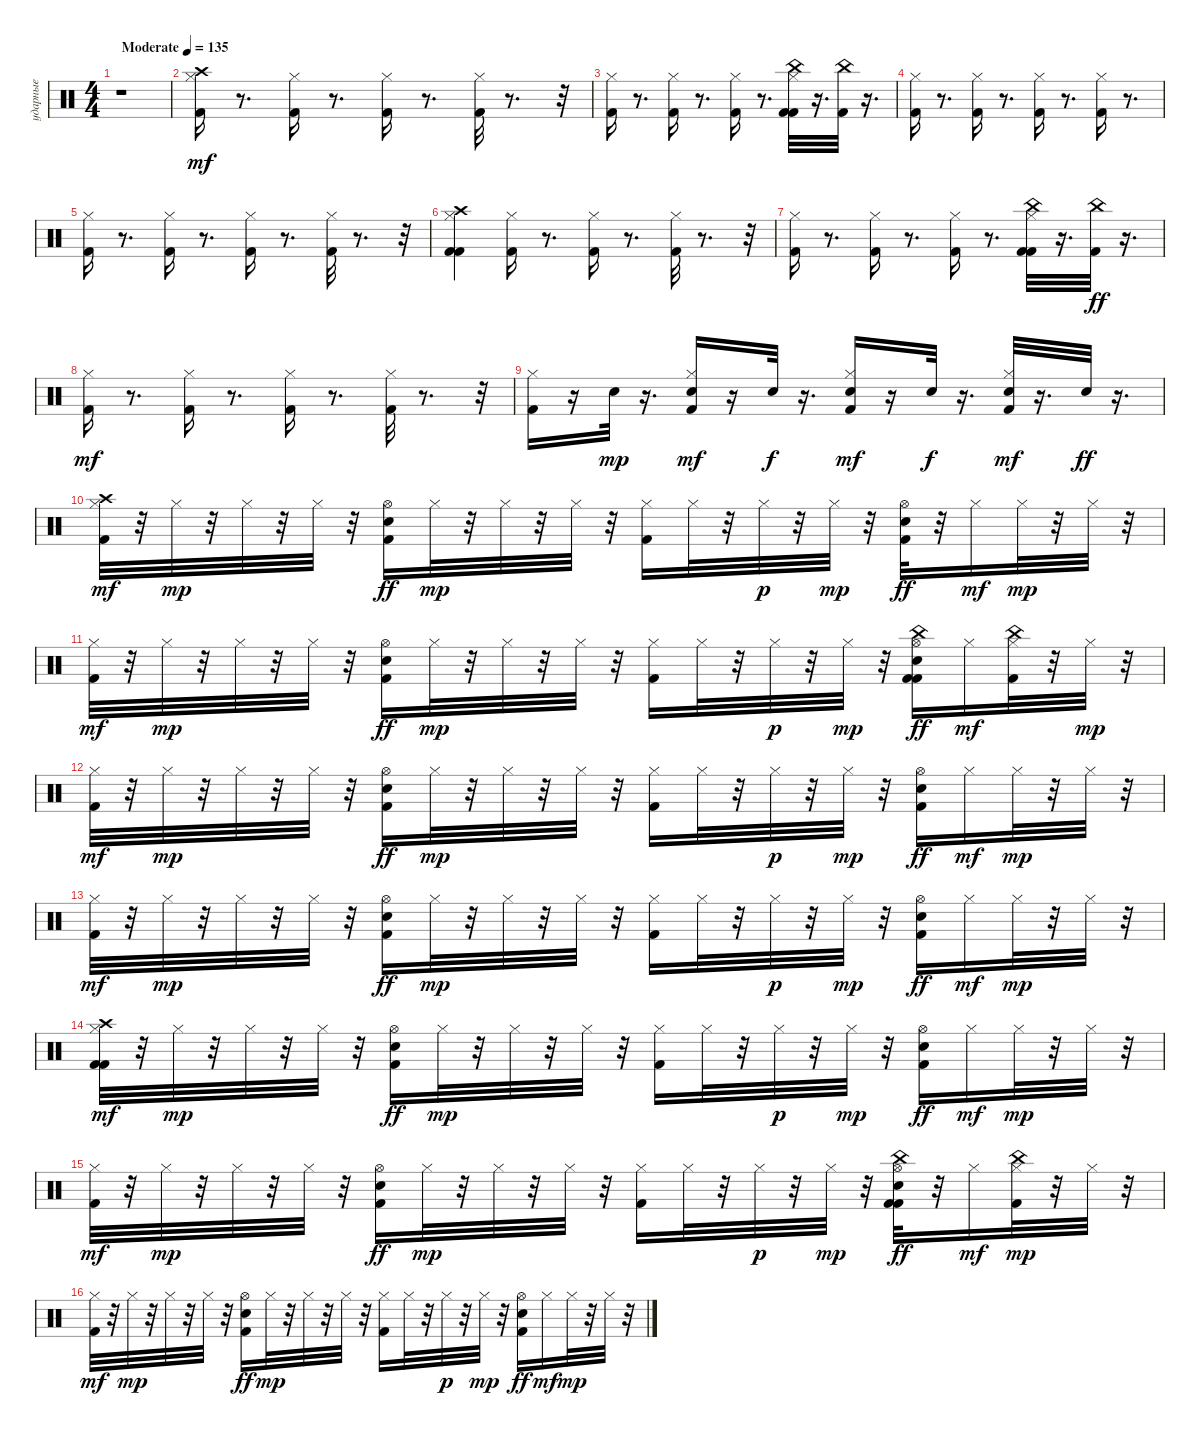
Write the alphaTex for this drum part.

\track ("ударные" "ударные") {instrument percussion}
\staff {score}
\articulation defaults
\ts (4 4)
\tempo (135 "Moderate")
\clef neutral
\ks c
r.1{dy mf} |
("Kick (hit) 2" "Hi-Hat (closed)" "Crash high (hit)").16 r.8{d} ("Kick (hit) 2" "Hi-Hat (closed)").16 r.8{d} ("Kick (hit) 2" "Hi-Hat (closed)").16 r.8{d} ("Kick (hit) 2" "Hi-Hat (closed)").32 r.8{d} r.32 |
("Kick (hit) 2" "Hi-Hat (closed)").16 r.8{d} ("Kick (hit) 2" "Hi-Hat (closed)").16 r.8{d} ("Kick (hit) 2" "Hi-Hat (closed)").16 r.8{d} ("Kick (hit) 2" "Kick (hit) 2" "Hi-Hat (closed)" "China (hit)").32 r.16{d} ("Kick (hit) 2" "China (hit)").32 r.16{d} |
("Kick (hit) 2" "Hi-Hat (closed)").16 r.8{d} ("Kick (hit) 2" "Hi-Hat (closed)").16 r.8{d} ("Kick (hit) 2" "Hi-Hat (closed)").16 r.8{d} ("Kick (hit) 2" "Hi-Hat (closed)").16 r.8{d} |
("Kick (hit) 2" "Hi-Hat (closed)").16 r.8{d} ("Kick (hit) 2" "Hi-Hat (closed)").16 r.8{d} ("Kick (hit) 2" "Hi-Hat (closed)").16 r.8{d} ("Kick (hit) 2" "Hi-Hat (closed)").32 r.8{d} r.32 |
("Kick (hit) 2" "Hi-Hat (closed)" "Kick (hit) 2" "Crash high (hit)").4 ("Kick (hit) 2" "Hi-Hat (closed)").16 r.8{d} ("Kick (hit) 2" "Hi-Hat (closed)").16 r.8{d} ("Kick (hit) 2" "Hi-Hat (closed)").32 r.8{d} r.32 |
("Kick (hit) 2" "Hi-Hat (closed)").16 r.8{d} ("Kick (hit) 2" "Hi-Hat (closed)").16 r.8{d} ("Kick (hit) 2" "Hi-Hat (closed)").16 r.8{d} ("Kick (hit) 2" "Kick (hit) 2" "Hi-Hat (closed)" "China (hit)").32 r.16{d} ("Kick (hit) 2" "China (hit)").32{dy ff} r.16{d} |
("Kick (hit) 2" "Hi-Hat (closed)").16{dy mf} r.8{d} ("Kick (hit) 2" "Hi-Hat (closed)").16 r.8{d} ("Kick (hit) 2" "Hi-Hat (closed)").16 r.8{d} ("Kick (hit) 2" "Hi-Hat (closed)").32 r.8{d} r.32 |
("Kick (hit) 2" "Hi-Hat (closed)").16 r.16 "Snare (hit) 2".32{dy mp} r.16{d} ("Kick (hit) 2" "Snare (hit) 2" "Hi-Hat (closed)").16{dy mf} r.16 "Snare (hit) 2".32{dy f} r.16{d} ("Kick (hit) 2" "Snare (hit) 2" "Hi-Hat (closed)").16{dy mf} r.16 "Snare (hit) 2".32{dy f} r.16{d} ("Kick (hit) 2" "Snare (hit) 2" "Hi-Hat (closed)").32{dy mf} r.16{d} "Snare (hit) 2".32{dy ff} r.16{d} |
("Kick (hit) 2" "Hi-Hat (closed)" "Crash high (hit)").32{dy mf} r.32 "Hi-Hat (closed)".32{dy mp} r.32 "Hi-Hat (closed)".32 r.32 "Hi-Hat (closed)".32 r.32 ("Kick (hit) 2" "Snare (hit) 2" "Hi-Hat (open)").16{dy ff} "Hi-Hat (closed)".32{dy mp} r.32 "Hi-Hat (closed)".32 r.32 "Hi-Hat (closed)".32 r.32 ("Kick (hit) 2" "Hi-Hat (closed)").16 "Hi-Hat (closed)".32 r.32 "Hi-Hat (closed)".32{dy p} r.32 "Hi-Hat (closed)".32{dy mp} r.32 ("Kick (hit) 2" "Snare (hit) 2" "Hi-Hat (open)").32{dy ff} r.32 "Hi-Hat (closed)".16{dy mf} "Hi-Hat (closed)".32{dy mp} r.32 "Hi-Hat (closed)".32 r.32 |
("Kick (hit) 2" "Hi-Hat (closed)").32{dy mf} r.32 "Hi-Hat (closed)".32{dy mp} r.32 "Hi-Hat (closed)".32 r.32 "Hi-Hat (closed)".32 r.32 ("Kick (hit) 2" "Snare (hit) 2" "Hi-Hat (open)").16{dy ff} "Hi-Hat (closed)".32{dy mp} r.32 "Hi-Hat (closed)".32 r.32 "Hi-Hat (closed)".32 r.32 ("Kick (hit) 2" "Hi-Hat (closed)").16 "Hi-Hat (closed)".32 r.32 "Hi-Hat (closed)".32{dy p} r.32 "Hi-Hat (closed)".32{dy mp} r.32 ("Kick (hit) 2" "Kick (hit) 2" "Hi-Hat (open)" "Snare (hit) 2" "China (hit)").16{dy ff} "Hi-Hat (closed)".16{dy mf} ("Kick (hit) 2" "Hi-Hat (closed)" "China (hit)").32 r.32 "Hi-Hat (closed)".32{dy mp} r.32 |
("Kick (hit) 2" "Hi-Hat (closed)").32{dy mf} r.32 "Hi-Hat (closed)".32{dy mp} r.32 "Hi-Hat (closed)".32 r.32 "Hi-Hat (closed)".32 r.32 ("Kick (hit) 2" "Snare (hit) 2" "Hi-Hat (open)").16{dy ff} "Hi-Hat (closed)".32{dy mp} r.32 "Hi-Hat (closed)".32 r.32 "Hi-Hat (closed)".32 r.32 ("Kick (hit) 2" "Hi-Hat (closed)").16 "Hi-Hat (closed)".32 r.32 "Hi-Hat (closed)".32{dy p} r.32 "Hi-Hat (closed)".32{dy mp} r.32 ("Kick (hit) 2" "Snare (hit) 2" "Hi-Hat (open)").16{dy ff} "Hi-Hat (closed)".16{dy mf} "Hi-Hat (closed)".32{dy mp} r.32 "Hi-Hat (closed)".32 r.32 |
("Kick (hit) 2" "Hi-Hat (closed)").32{dy mf} r.32 "Hi-Hat (closed)".32{dy mp} r.32 "Hi-Hat (closed)".32 r.32 "Hi-Hat (closed)".32 r.32 ("Kick (hit) 2" "Snare (hit) 2" "Hi-Hat (open)").16{dy ff} "Hi-Hat (closed)".32{dy mp} r.32 "Hi-Hat (closed)".32 r.32 "Hi-Hat (closed)".32 r.32 ("Kick (hit) 2" "Hi-Hat (closed)").16 "Hi-Hat (closed)".32 r.32 "Hi-Hat (closed)".32{dy p} r.32 "Hi-Hat (closed)".32{dy mp} r.32 ("Kick (hit) 2" "Snare (hit) 2" "Hi-Hat (open)").16{dy ff} "Hi-Hat (closed)".16{dy mf} "Hi-Hat (closed)".32{dy mp} r.32 "Hi-Hat (closed)".32 r.32 |
("Kick (hit) 2" "Kick (hit) 2" "Hi-Hat (closed)" "Crash high (hit)").32{dy mf} r.32 "Hi-Hat (closed)".32{dy mp} r.32 "Hi-Hat (closed)".32 r.32 "Hi-Hat (closed)".32 r.32 ("Kick (hit) 2" "Snare (hit) 2" "Hi-Hat (open)").16{dy ff} "Hi-Hat (closed)".32{dy mp} r.32 "Hi-Hat (closed)".32 r.32 "Hi-Hat (closed)".32 r.32 ("Kick (hit) 2" "Hi-Hat (closed)").16 "Hi-Hat (closed)".32 r.32 "Hi-Hat (closed)".32{dy p} r.32 "Hi-Hat (closed)".32{dy mp} r.32 ("Kick (hit) 2" "Snare (hit) 2" "Hi-Hat (open)").16{dy ff} "Hi-Hat (closed)".16{dy mf} "Hi-Hat (closed)".32{dy mp} r.32 "Hi-Hat (closed)".32 r.32 |
("Kick (hit) 2" "Hi-Hat (closed)").32{dy mf} r.32 "Hi-Hat (closed)".32{dy mp} r.32 "Hi-Hat (closed)".32 r.32 "Hi-Hat (closed)".32 r.32 ("Kick (hit) 2" "Snare (hit) 2" "Hi-Hat (open)").16{dy ff} "Hi-Hat (closed)".32{dy mp} r.32 "Hi-Hat (closed)".32 r.32 "Hi-Hat (closed)".32 r.32 ("Kick (hit) 2" "Hi-Hat (closed)").16 "Hi-Hat (closed)".32 r.32 "Hi-Hat (closed)".32{dy p} r.32 "Hi-Hat (closed)".32{dy mp} r.32 ("Kick (hit) 2" "Kick (hit) 2" "Hi-Hat (open)" "Snare (hit) 2" "China (hit)").32{dy ff} r.32 "Hi-Hat (closed)".16{dy mf} ("Kick (hit) 2" "Hi-Hat (closed)" "China (hit)").32{dy mp} r.32 "Hi-Hat (closed)".32 r.32 |
("Kick (hit) 2" "Hi-Hat (closed)").32{dy mf} r.32 "Hi-Hat (closed)".32{dy mp} r.32 "Hi-Hat (closed)".32 r.32 "Hi-Hat (closed)".32 r.32 ("Kick (hit) 2" "Snare (hit) 2" "Hi-Hat (open)").16{dy ff} "Hi-Hat (closed)".32{dy mp} r.32 "Hi-Hat (closed)".32 r.32 "Hi-Hat (closed)".32 r.32 ("Kick (hit) 2" "Hi-Hat (closed)").16 "Hi-Hat (closed)".32 r.32 "Hi-Hat (closed)".32{dy p} r.32 "Hi-Hat (closed)".32{dy mp} r.32 ("Kick (hit) 2" "Snare (hit) 2" "Hi-Hat (open)").16{dy ff} "Hi-Hat (closed)".16{dy mf} "Hi-Hat (closed)".32{dy mp} r.32 "Hi-Hat (closed)".32 r.32
